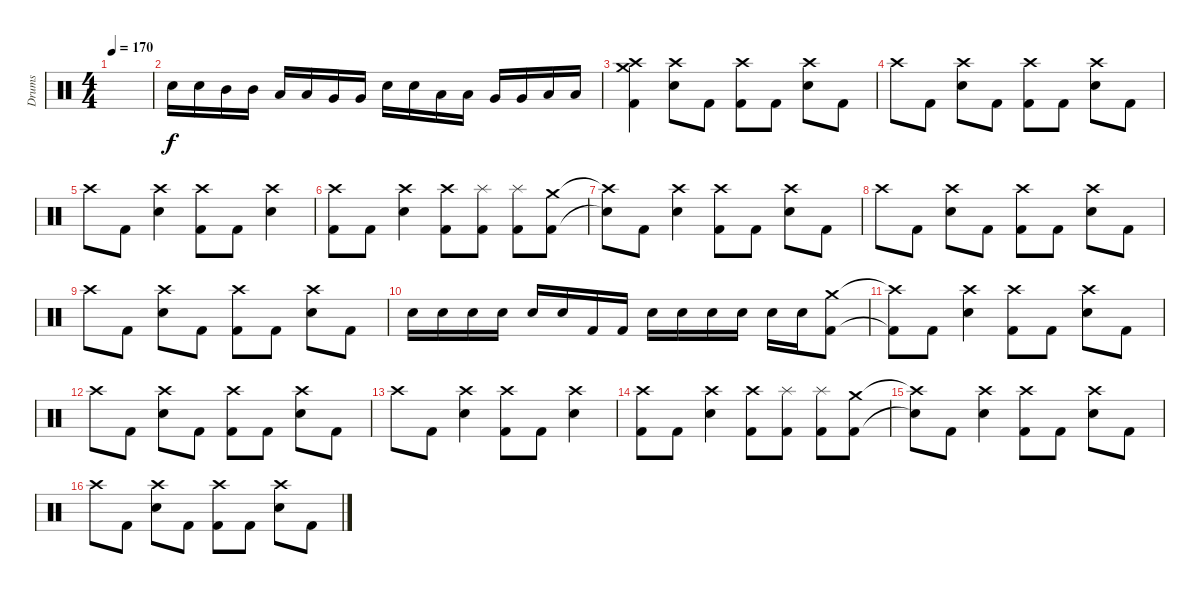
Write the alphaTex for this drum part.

\track ("Drums" "Drums") {instrument percussion}
\staff {score}
\articulation defaults
\ts (4 4)
\tempo 170
\clef neutral
\ks c
|
"Electric Snare (hit)".16 "Electric Snare (hit)".16 "Mid Tom (hit)".16 "Mid Tom (hit)".16 "Low Tom (hit)".16 "Low Tom (hit)".16 "Very Low Tom (hit)".16 "Very Low Tom (hit)".16 "Electric Snare (hit)".16 "Electric Snare (hit)".16 "Low Tom (hit)".16 "Low Tom (hit)".16 "Very Low Tom (hit)".16 "Very Low Tom (hit)".16 "Low Floor Tom (hit)".16 "Low Floor Tom (hit)".16 |
("Crash high (hit)" "Crash medium (hit)" "Kick (hit) 2").4 ("Crash high (hit)" "Electric Snare (hit)").8 "Kick (hit) 2".8 ("Crash high (hit)" "Kick (hit) 2").8 "Kick (hit) 2".8 ("Crash high (hit)" "Electric Snare (hit)").8 "Kick (hit) 2".8 |
"Crash high (hit)".8 "Kick (hit) 2".8 ("Crash high (hit)" "Electric Snare (hit)").8 "Kick (hit) 2".8 ("Crash high (hit)" "Kick (hit) 2").8 "Kick (hit) 2".8 ("Crash high (hit)" "Electric Snare (hit)").8 "Kick (hit) 2".8 |
"Crash high (hit)".8 "Kick (hit) 2".8 ("Crash high (hit)" "Electric Snare (hit)").4 ("Crash high (hit)" "Kick (hit) 2").8 "Kick (hit) 2".8 ("Crash high (hit)" "Electric Snare (hit)").4 |
("Crash high (hit)" "Kick (hit) 2").8 "Kick (hit) 2".8 ("Crash high (hit)" "Electric Snare (hit)").4 ("Crash high (hit)" "Kick (hit) 2").8 ("Splash (hit)" "Kick (hit) 2").8 ("Splash (hit)" "Kick (hit) 2").8 ("Crash medium (hit)" "Kick (hit) 2").8 |
("Crash high (hit)"{t} "Snare (hit)"{t}).8 "Kick (hit) 2".8 ("Crash high (hit)" "Electric Snare (hit)").4 ("Crash high (hit)" "Kick (hit) 2").8 "Kick (hit) 2".8 ("Crash high (hit)" "Electric Snare (hit)").8 "Kick (hit) 2".8 |
"Crash high (hit)".8 "Kick (hit) 2".8 ("Crash high (hit)" "Electric Snare (hit)").8 "Kick (hit) 2".8 ("Crash high (hit)" "Kick (hit) 2").8 "Kick (hit) 2".8 ("Crash high (hit)" "Electric Snare (hit)").8 "Kick (hit) 2".8 |
"Crash high (hit)".8 "Kick (hit) 2".8 ("Crash high (hit)" "Electric Snare (hit)").8 "Kick (hit) 2".8 ("Crash high (hit)" "Kick (hit) 2").8 "Kick (hit) 2".8 ("Crash high (hit)" "Electric Snare (hit)").8 "Kick (hit) 2".8 |
"Electric Snare (hit)".16 "Electric Snare (hit)".16 "Electric Snare (hit)".16 "Electric Snare (hit)".16 "Electric Snare (hit)".16 "Electric Snare (hit)".16 "Kick (hit) 2".16 "Kick (hit) 2".16 "Electric Snare (hit)".16 "Electric Snare (hit)".16 "Electric Snare (hit)".16 "Electric Snare (hit)".16 "Electric Snare (hit)".16 "Electric Snare (hit)".16 ("Crash medium (hit)" "Kick (hit) 2").8 |
("Crash high (hit)"{t} "Kick (hit) 2"{t}).8 "Kick (hit) 2".8 ("Crash high (hit)" "Electric Snare (hit)").4 ("Crash high (hit)" "Kick (hit) 2").8 "Kick (hit) 2".8 ("Crash high (hit)" "Electric Snare (hit)").8 "Kick (hit) 2".8 |
"Crash high (hit)".8 "Kick (hit) 2".8 ("Crash high (hit)" "Electric Snare (hit)").8 "Kick (hit) 2".8 ("Crash high (hit)" "Kick (hit) 2").8 "Kick (hit) 2".8 ("Crash high (hit)" "Electric Snare (hit)").8 "Kick (hit) 2".8 |
"Crash high (hit)".8 "Kick (hit) 2".8 ("Crash high (hit)" "Electric Snare (hit)").4 ("Crash high (hit)" "Kick (hit) 2").8 "Kick (hit) 2".8 ("Crash high (hit)" "Electric Snare (hit)").4 |
("Crash high (hit)" "Kick (hit) 2").8 "Kick (hit) 2".8 ("Crash high (hit)" "Electric Snare (hit)").4 ("Crash high (hit)" "Kick (hit) 2").8 ("Splash (hit)" "Kick (hit) 2").8 ("Splash (hit)" "Kick (hit) 2").8 ("Crash medium (hit)" "Kick (hit) 2").8 |
("Crash high (hit)"{t} "Snare (hit)"{t}).8 "Kick (hit) 2".8 ("Crash high (hit)" "Electric Snare (hit)").4 ("Crash high (hit)" "Kick (hit) 2").8 "Kick (hit) 2".8 ("Crash high (hit)" "Electric Snare (hit)").8 "Kick (hit) 2".8 |
"Crash high (hit)".8 "Kick (hit) 2".8 ("Crash high (hit)" "Electric Snare (hit)").8 "Kick (hit) 2".8 ("Crash high (hit)" "Kick (hit) 2").8 "Kick (hit) 2".8 ("Crash high (hit)" "Electric Snare (hit)").8 "Kick (hit) 2".8
